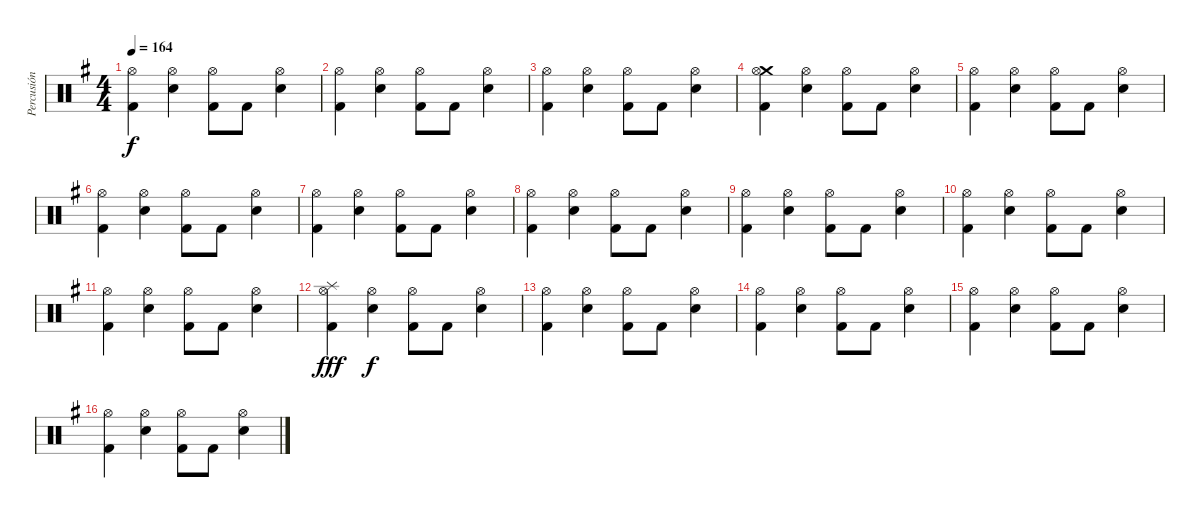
\track ("Percusión" "Percusión") {instrument percussion}
\staff {score}
\articulation defaults
\ts (4 4)
\tempo 164
\clef neutral
\ks g
("Hi-Hat (open)" "Kick (hit) 2").4{dy f} ("Hi-Hat (open)" "Snare (hit) 2").4 ("Hi-Hat (open)" "Kick (hit) 2").8 "Kick (hit) 2".8 ("Hi-Hat (open)" "Snare (hit) 2").4 |
("Hi-Hat (open)" "Kick (hit) 2").4 ("Hi-Hat (open)" "Snare (hit) 2").4 ("Hi-Hat (open)" "Kick (hit) 2").8 "Kick (hit) 2".8 ("Hi-Hat (open)" "Snare (hit) 2").4 |
("Hi-Hat (open)" "Kick (hit) 2").4 ("Hi-Hat (open)" "Snare (hit) 2").4 ("Hi-Hat (open)" "Kick (hit) 2").8 "Kick (hit) 2".8 ("Hi-Hat (open)" "Snare (hit) 2").4 |
("Crash medium (hit)" "Hi-Hat (open)" "Kick (hit) 2").4 ("Hi-Hat (open)" "Snare (hit) 2").4 ("Hi-Hat (open)" "Kick (hit) 2").8 "Kick (hit) 2".8 ("Hi-Hat (open)" "Snare (hit) 2").4 |
("Hi-Hat (open)" "Kick (hit) 2").4 ("Hi-Hat (open)" "Snare (hit) 2").4 ("Hi-Hat (open)" "Kick (hit) 2").8 "Kick (hit) 2".8 ("Hi-Hat (open)" "Snare (hit) 2").4 |
("Hi-Hat (open)" "Kick (hit) 2").4 ("Hi-Hat (open)" "Snare (hit) 2").4 ("Hi-Hat (open)" "Kick (hit) 2").8 "Kick (hit) 2".8 ("Hi-Hat (open)" "Snare (hit) 2").4 |
("Hi-Hat (open)" "Kick (hit) 2").4 ("Hi-Hat (open)" "Snare (hit) 2").4 ("Hi-Hat (open)" "Kick (hit) 2").8 "Kick (hit) 2".8 ("Hi-Hat (open)" "Snare (hit) 2").4 |
("Hi-Hat (open)" "Kick (hit) 2").4 ("Hi-Hat (open)" "Snare (hit) 2").4 ("Hi-Hat (open)" "Kick (hit) 2").8 "Kick (hit) 2".8 ("Hi-Hat (open)" "Snare (hit) 2").4 |
("Hi-Hat (open)" "Kick (hit) 2").4 ("Hi-Hat (open)" "Snare (hit) 2").4 ("Hi-Hat (open)" "Kick (hit) 2").8 "Kick (hit) 2".8 ("Hi-Hat (open)" "Snare (hit) 2").4 |
("Hi-Hat (open)" "Kick (hit) 2").4 ("Hi-Hat (open)" "Snare (hit) 2").4 ("Hi-Hat (open)" "Kick (hit) 2").8 "Kick (hit) 2".8 ("Hi-Hat (open)" "Snare (hit) 2").4 |
("Hi-Hat (open)" "Kick (hit) 2").4 ("Hi-Hat (open)" "Snare (hit) 2").4 ("Hi-Hat (open)" "Kick (hit) 2").8 "Kick (hit) 2".8 ("Hi-Hat (open)" "Snare (hit) 2").4 |
("Splash (hit)" "Hi-Hat (open)" "Kick (hit) 2").4{dy fff} ("Hi-Hat (open)" "Snare (hit) 2").4{dy f} ("Hi-Hat (open)" "Kick (hit) 2").8 "Kick (hit) 2".8 ("Hi-Hat (open)" "Snare (hit) 2").4 |
("Hi-Hat (open)" "Kick (hit) 2").4 ("Hi-Hat (open)" "Snare (hit) 2").4 ("Hi-Hat (open)" "Kick (hit) 2").8 "Kick (hit) 2".8 ("Hi-Hat (open)" "Snare (hit) 2").4 |
("Hi-Hat (open)" "Kick (hit) 2").4 ("Hi-Hat (open)" "Snare (hit) 2").4 ("Hi-Hat (open)" "Kick (hit) 2").8 "Kick (hit) 2".8 ("Hi-Hat (open)" "Snare (hit) 2").4 |
("Hi-Hat (open)" "Kick (hit) 2").4 ("Hi-Hat (open)" "Snare (hit) 2").4 ("Hi-Hat (open)" "Kick (hit) 2").8 "Kick (hit) 2".8 ("Hi-Hat (open)" "Snare (hit) 2").4 |
("Hi-Hat (open)" "Kick (hit) 2").4 ("Hi-Hat (open)" "Snare (hit) 2").4 ("Hi-Hat (open)" "Kick (hit) 2").8 "Kick (hit) 2".8 ("Hi-Hat (open)" "Snare (hit) 2").4
